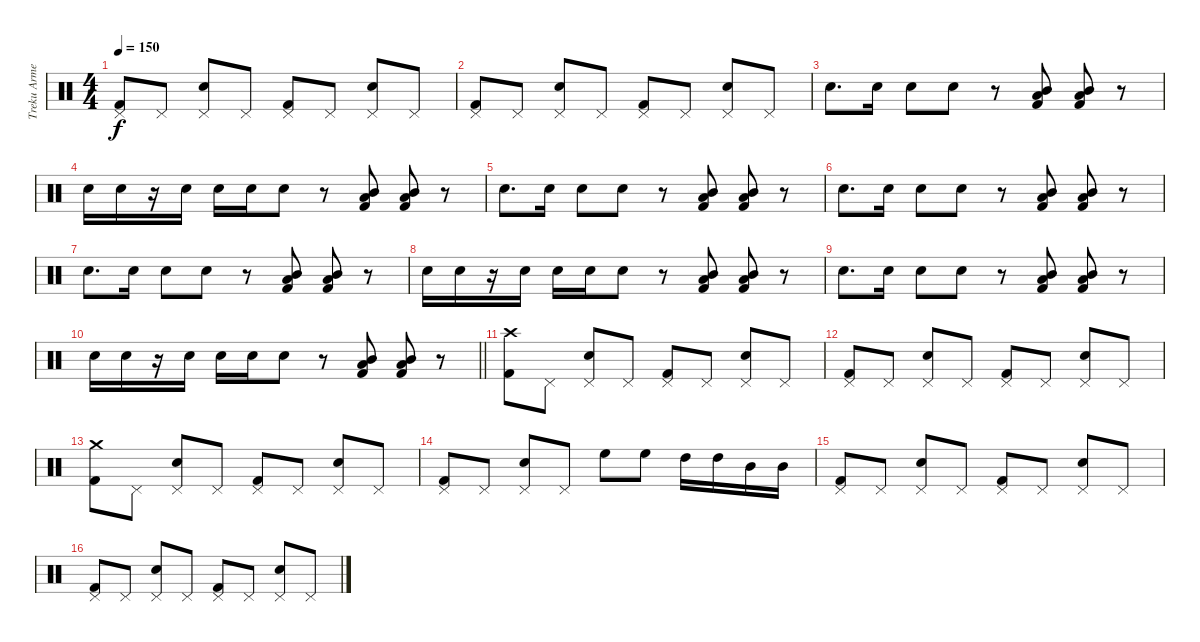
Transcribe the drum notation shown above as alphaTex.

\track ("Treku Armendáriz" "Treku Arme") {instrument percussion}
\staff {score}
\articulation defaults
\ts (4 4)
\tempo 150
\clef neutral
\ks c
("Pedal Hi-Hat (hit)" "Kick (hit) 2").8{dy f} "Pedal Hi-Hat (hit)".8 ("Pedal Hi-Hat (hit)" "Electric Snare (hit)").8 "Pedal Hi-Hat (hit)".8 ("Pedal Hi-Hat (hit)" "Kick (hit) 2").8 "Pedal Hi-Hat (hit)".8 ("Pedal Hi-Hat (hit)" "Electric Snare (hit)").8 "Pedal Hi-Hat (hit)".8 |
("Pedal Hi-Hat (hit)" "Kick (hit) 2").8 "Pedal Hi-Hat (hit)".8 ("Pedal Hi-Hat (hit)" "Electric Snare (hit)").8 "Pedal Hi-Hat (hit)".8 ("Pedal Hi-Hat (hit)" "Kick (hit) 2").8 "Pedal Hi-Hat (hit)".8 ("Pedal Hi-Hat (hit)" "Electric Snare (hit)").8 "Pedal Hi-Hat (hit)".8 |
"Electric Snare (hit)".8{d} "Electric Snare (hit)".16 "Electric Snare (hit)".8 "Electric Snare (hit)".8 r.8 ("Kick (hit) 2" "Low Tom (hit)" "Mid Tom (hit)").8 ("Kick (hit) 2" "Low Tom (hit)" "Mid Tom (hit)").8 r.8 |
"Electric Snare (hit)".16 "Electric Snare (hit)".16 r.16 "Electric Snare (hit)".16 "Electric Snare (hit)".16 "Electric Snare (hit)".16 "Electric Snare (hit)".8 r.8 ("Kick (hit) 2" "Low Tom (hit)" "Mid Tom (hit)").8 ("Kick (hit) 2" "Low Tom (hit)" "Mid Tom (hit)").8 r.8 |
"Electric Snare (hit)".8{d} "Electric Snare (hit)".16 "Electric Snare (hit)".8 "Electric Snare (hit)".8 r.8 ("Kick (hit) 2" "Low Tom (hit)" "Mid Tom (hit)").8 ("Kick (hit) 2" "Low Tom (hit)" "Mid Tom (hit)").8 r.8 |
"Electric Snare (hit)".8{d} "Electric Snare (hit)".16 "Electric Snare (hit)".8 "Electric Snare (hit)".8 r.8 ("Kick (hit) 2" "Low Tom (hit)" "Mid Tom (hit)").8 ("Kick (hit) 2" "Low Tom (hit)" "Mid Tom (hit)").8 r.8 |
"Electric Snare (hit)".8{d} "Electric Snare (hit)".16 "Electric Snare (hit)".8 "Electric Snare (hit)".8 r.8 ("Kick (hit) 2" "Low Tom (hit)" "Mid Tom (hit)").8 ("Kick (hit) 2" "Low Tom (hit)" "Mid Tom (hit)").8 r.8 |
"Electric Snare (hit)".16 "Electric Snare (hit)".16 r.16 "Electric Snare (hit)".16 "Electric Snare (hit)".16 "Electric Snare (hit)".16 "Electric Snare (hit)".8 r.8 ("Kick (hit) 2" "Low Tom (hit)" "Mid Tom (hit)").8 ("Kick (hit) 2" "Low Tom (hit)" "Mid Tom (hit)").8 r.8 |
"Electric Snare (hit)".8{d} "Electric Snare (hit)".16 "Electric Snare (hit)".8 "Electric Snare (hit)".8 r.8 ("Kick (hit) 2" "Low Tom (hit)" "Mid Tom (hit)").8 ("Kick (hit) 2" "Low Tom (hit)" "Mid Tom (hit)").8 r.8 |
\barLineRight lightlight "Electric Snare (hit)".16 "Electric Snare (hit)".16
r.16 "Electric Snare (hit)".16 "Electric Snare (hit)".16 "Electric Snare (hit)".16 "Electric Snare (hit)".8 r.8 ("Kick (hit) 2" "Low Tom (hit)" "Mid Tom (hit)").8 ("Kick (hit) 2" "Low Tom (hit)" "Mid Tom (hit)").8 r.8 |
("Crash high (hit)" "Kick (hit) 2").8 "Pedal Hi-Hat (hit)".8 ("Pedal Hi-Hat (hit)" "Electric Snare (hit)").8 "Pedal Hi-Hat (hit)".8 ("Pedal Hi-Hat (hit)" "Kick (hit) 2").8 "Pedal Hi-Hat (hit)".8 ("Pedal Hi-Hat (hit)" "Electric Snare (hit)").8 "Pedal Hi-Hat (hit)".8 |
("Pedal Hi-Hat (hit)" "Kick (hit) 2").8 "Pedal Hi-Hat (hit)".8 ("Pedal Hi-Hat (hit)" "Electric Snare (hit)").8 "Pedal Hi-Hat (hit)".8 ("Pedal Hi-Hat (hit)" "Kick (hit) 2").8 "Pedal Hi-Hat (hit)".8 ("Pedal Hi-Hat (hit)" "Electric Snare (hit)").8 "Pedal Hi-Hat (hit)".8 |
("Crash medium (hit)" "Kick (hit) 2").8 "Pedal Hi-Hat (hit)".8 ("Pedal Hi-Hat (hit)" "Electric Snare (hit)").8 "Pedal Hi-Hat (hit)".8 ("Pedal Hi-Hat (hit)" "Kick (hit) 2").8 "Pedal Hi-Hat (hit)".8 ("Pedal Hi-Hat (hit)" "Electric Snare (hit)").8 "Pedal Hi-Hat (hit)".8 |
("Pedal Hi-Hat (hit)" "Kick (hit) 2").8 "Pedal Hi-Hat (hit)".8 ("Pedal Hi-Hat (hit)" "Electric Snare (hit)").8 "Pedal Hi-Hat (hit)".8 "High Floor Tom (hit)".8 "High Floor Tom (hit)".8 "High Tom (hit)".16 "High Tom (hit)".16 "Mid Tom (hit)".16 "Mid Tom (hit)".16 |
("Pedal Hi-Hat (hit)" "Kick (hit) 2").8 "Pedal Hi-Hat (hit)".8 ("Pedal Hi-Hat (hit)" "Electric Snare (hit)").8 "Pedal Hi-Hat (hit)".8 ("Pedal Hi-Hat (hit)" "Kick (hit) 2").8 "Pedal Hi-Hat (hit)".8 ("Pedal Hi-Hat (hit)" "Electric Snare (hit)").8 "Pedal Hi-Hat (hit)".8 |
("Pedal Hi-Hat (hit)" "Kick (hit) 2").8 "Pedal Hi-Hat (hit)".8 ("Pedal Hi-Hat (hit)" "Electric Snare (hit)").8 "Pedal Hi-Hat (hit)".8 ("Pedal Hi-Hat (hit)" "Kick (hit) 2").8 "Pedal Hi-Hat (hit)".8 ("Pedal Hi-Hat (hit)" "Electric Snare (hit)").8 "Pedal Hi-Hat (hit)".8
